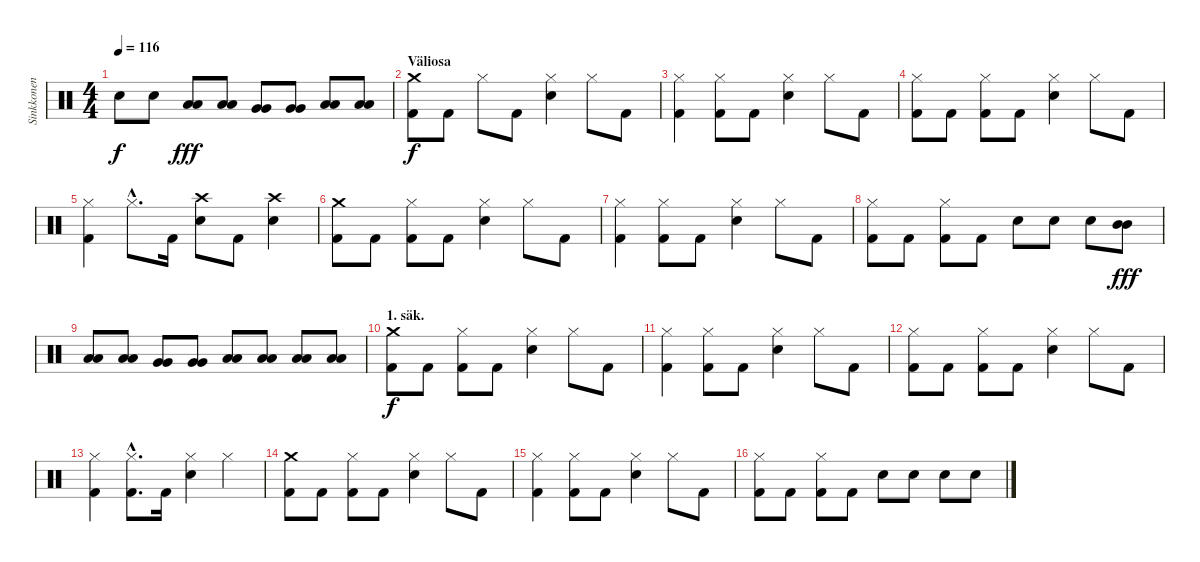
\track ("Sinkkonen" "Sinkkonen") {instrument percussion}
\staff {score}
\articulation defaults
\ts (4 4)
\tempo 116
\clef neutral
\ks c "Snare (hit) 2".8{dy f} "Snare (hit) 2".8
("Low Tom (hit)" "Low Tom (hit)").8{dy fff} ("Low Tom (hit)" "Low Tom (hit)").8 ("Very Low Tom (hit)" "Very Low Tom (hit)").8 ("Very Low Tom (hit)" "Very Low Tom (hit)").8 ("Low Floor Tom (hit)" "Low Floor Tom (hit)").8 ("Low Floor Tom (hit)" "Low Floor Tom (hit)").8 |
\section ("" "Väliosa")
("Kick (hit) 2" "Crash medium (hit)").8{dy f} "Kick (hit) 2".8 "Hi-Hat (closed)".8 "Kick (hit) 2".8 ("Hi-Hat (closed)" "Snare (hit) 2").4 "Hi-Hat (closed)".8 "Kick (hit) 2".8 |
("Kick (hit) 2" "Hi-Hat (closed)").4 ("Kick (hit) 2" "Hi-Hat (closed)").8 "Kick (hit) 2".8 ("Hi-Hat (closed)" "Snare (hit) 2").4 "Hi-Hat (closed)".8 "Kick (hit) 2".8 |
("Kick (hit) 2" "Hi-Hat (closed)").8 "Kick (hit) 2".8 ("Kick (hit) 2" "Hi-Hat (closed)").8 "Kick (hit) 2".8 ("Hi-Hat (closed)" "Snare (hit) 2").4 "Hi-Hat (closed)".8 "Kick (hit) 2".8 |
("Kick (hit) 2" "Hi-Hat (closed)").4 "Hi-Hat (closed)"{hac}.8{d} "Kick (hit) 2".16 ("Crash high (hit)" "Snare (hit) 2").8 "Kick (hit) 2".8 ("Crash high (hit)" "Snare (hit) 2").4 |
("Kick (hit) 2" "Crash medium (hit)").8 "Kick (hit) 2".8 ("Kick (hit) 2" "Hi-Hat (closed)").8 "Kick (hit) 2".8 ("Hi-Hat (closed)" "Snare (hit) 2").4 "Hi-Hat (closed)".8 "Kick (hit) 2".8 |
("Kick (hit) 2" "Hi-Hat (closed)").4 ("Kick (hit) 2" "Hi-Hat (closed)").8 "Kick (hit) 2".8 ("Hi-Hat (closed)" "Snare (hit) 2").4 "Hi-Hat (closed)".8 "Kick (hit) 2".8 |
("Kick (hit) 2" "Hi-Hat (closed)").8 "Kick (hit) 2".8 ("Kick (hit) 2" "Hi-Hat (closed)").8 "Kick (hit) 2".8 "Snare (hit) 2".8 "Snare (hit) 2".8 "Snare (hit) 2".8 ("Mid Tom (hit)" "Mid Tom (hit)").8{dy fff} |
("Low Tom (hit)" "Low Tom (hit)").8 ("Low Tom (hit)" "Low Tom (hit)").8 ("Very Low Tom (hit)" "Very Low Tom (hit)").8 ("Very Low Tom (hit)" "Very Low Tom (hit)").8 ("Low Floor Tom (hit)" "Low Floor Tom (hit)").8 ("Low Floor Tom (hit)" "Low Floor Tom (hit)").8 ("Low Floor Tom (hit)" "Low Floor Tom (hit)").8 ("Low Floor Tom (hit)" "Low Floor Tom (hit)").8 |
\section ("" "1. säk.")
("Kick (hit) 2" "Crash medium (hit)").8{dy f} "Kick (hit) 2".8 ("Kick (hit) 2" "Hi-Hat (closed)").8 "Kick (hit) 2".8 ("Hi-Hat (closed)" "Snare (hit) 2").4 "Hi-Hat (closed)".8 "Kick (hit) 2".8 |
("Kick (hit) 2" "Hi-Hat (closed)").4 ("Kick (hit) 2" "Hi-Hat (closed)").8 "Kick (hit) 2".8 ("Hi-Hat (closed)" "Snare (hit) 2").4 "Hi-Hat (closed)".8 "Kick (hit) 2".8 |
("Kick (hit) 2" "Hi-Hat (closed)").8 "Kick (hit) 2".8 ("Kick (hit) 2" "Hi-Hat (closed)").8 "Kick (hit) 2".8 ("Hi-Hat (closed)" "Snare (hit) 2").4 "Hi-Hat (closed)".8 "Kick (hit) 2".8 |
("Kick (hit) 2" "Hi-Hat (closed)").4 ("Kick (hit) 2"{hac} "Hi-Hat (closed)"{hac}).8{d} "Kick (hit) 2".16 ("Hi-Hat (closed)" "Snare (hit) 2").4 "Hi-Hat (closed)".4 |
("Kick (hit) 2" "Crash medium (hit)").8 "Kick (hit) 2".8 ("Kick (hit) 2" "Hi-Hat (closed)").8 "Kick (hit) 2".8 ("Hi-Hat (closed)" "Snare (hit) 2").4 "Hi-Hat (closed)".8 "Kick (hit) 2".8 |
("Kick (hit) 2" "Hi-Hat (closed)").4 ("Kick (hit) 2" "Hi-Hat (closed)").8 "Kick (hit) 2".8 ("Hi-Hat (closed)" "Snare (hit) 2").4 "Hi-Hat (closed)".8 "Kick (hit) 2".8 |
("Kick (hit) 2" "Hi-Hat (closed)").8 "Kick (hit) 2".8 ("Kick (hit) 2" "Hi-Hat (closed)").8 "Kick (hit) 2".8 "Snare (hit) 2".8 "Snare (hit) 2".8 "Snare (hit) 2".8 "Snare (hit) 2".8
